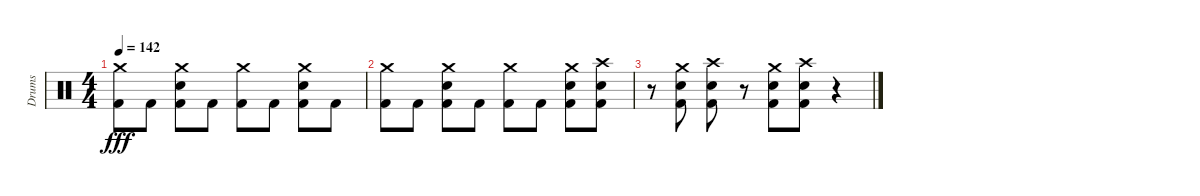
\track ("Drums" "Drums") {instrument percussion}
\staff {score}
\articulation defaults
\ts (4 4)
\tempo 142
\clef neutral
\ks c
("Crash medium (hit)" "Kick (hit) 2").8{dy fff} "Kick (hit) 2".8 ("Crash medium (hit)" "Snare (hit) 2" "Kick (hit) 2").8 "Kick (hit) 2".8 ("Crash medium (hit)" "Kick (hit) 2").8 "Kick (hit) 2".8 ("Crash medium (hit)" "Snare (hit) 2" "Kick (hit) 2").8 "Kick (hit) 2".8 |
("Crash medium (hit)" "Kick (hit) 2").8 "Kick (hit) 2".8 ("Crash medium (hit)" "Snare (hit) 2" "Kick (hit) 2").8 "Kick (hit) 2".8 ("Crash medium (hit)" "Kick (hit) 2").8 "Kick (hit) 2".8 ("Crash medium (hit)" "Snare (hit) 2" "Kick (hit) 2").8 ("Crash high (hit)" "Snare (hit) 2" "Kick (hit) 2").8 |
r.8 ("Crash medium (hit)" "Snare (hit) 2" "Kick (hit) 2").8 ("Crash high (hit)" "Snare (hit) 2" "Kick (hit) 2").8 r.8 ("Crash medium (hit)" "Snare (hit) 2" "Kick (hit) 2").8 ("Crash high (hit)" "Snare (hit) 2" "Kick (hit) 2").8 r.4
